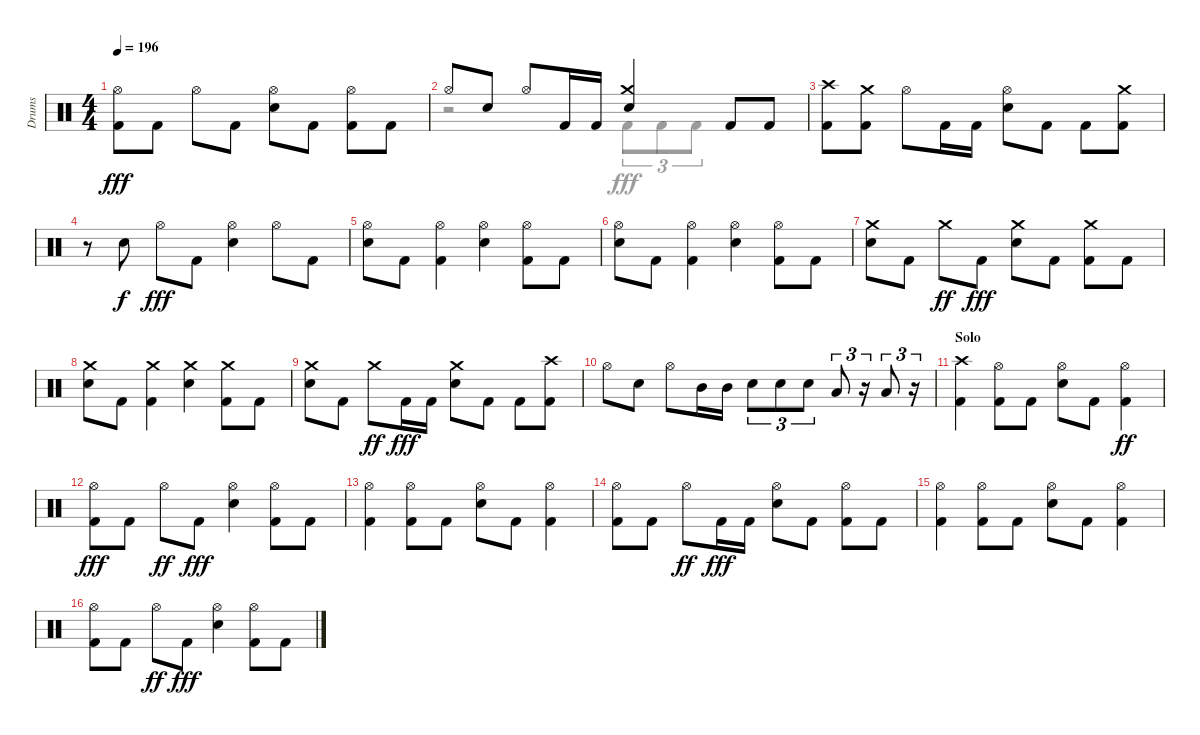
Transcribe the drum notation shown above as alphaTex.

\track ("Drums" "Drums") {instrument percussion}
\staff {score}
\articulation defaults
\voice
\ts (4 4)
\tempo 196
\clef neutral
\ks aminor
("Hi-Hat (open)" "Kick (hit) 2").8{dy fff} "Kick (hit) 2".8 "Hi-Hat (open)".8 "Kick (hit) 2".8 ("Snare (hit) 2" "Hi-Hat (open)").8 "Kick (hit) 2".8 ("Kick (hit) 2" "Hi-Hat (open)").8 "Kick (hit) 2".8 |
"Hi-Hat (open)".8 "Snare (hit) 2".8 "Hi-Hat (open)".8 "Kick (hit) 2".16 "Kick (hit) 2".16 ("Crash medium (hit)" "Snare (hit) 2").4 "Kick (hit) 2".8 "Kick (hit) 2".8 |
("Kick (hit) 2" "Crash high (hit)").8 ("Kick (hit) 2" "Crash medium (hit)").8 "Hi-Hat (open)".8 "Kick (hit) 2".16 "Kick (hit) 2".16 ("Snare (hit) 2" "Hi-Hat (open)").8 "Kick (hit) 2".8 "Kick (hit) 2".8 ("Kick (hit) 2" "Crash medium (hit)").8 |
r.8 "Snare (hit) 2".8{dy f} "Hi-Hat (open)".8{dy fff} "Kick (hit) 2".8 ("Snare (hit) 2" "Hi-Hat (open)").4 "Hi-Hat (open)".8 "Kick (hit) 2".8 |
("Hi-Hat (open)" "Snare (hit) 2").8 "Kick (hit) 2".8 ("Hi-Hat (open)" "Kick (hit) 2").4 ("Hi-Hat (open)" "Snare (hit) 2").4 ("Hi-Hat (open)" "Kick (hit) 2").8 "Kick (hit) 2".8 |
("Hi-Hat (open)" "Snare (hit) 2").8 "Kick (hit) 2".8 ("Kick (hit) 2" "Hi-Hat (open)").4 ("Hi-Hat (open)" "Snare (hit) 2").4 ("Kick (hit) 2" "Hi-Hat (open)").8 "Kick (hit) 2".8 |
("Crash medium (hit)" "Snare (hit) 2").8 "Kick (hit) 2".8 "Crash medium (hit)".8{dy ff} "Kick (hit) 2".8{dy fff} ("Snare (hit) 2" "Crash medium (hit)").8 "Kick (hit) 2".8 ("Crash medium (hit)" "Kick (hit) 2").8 "Kick (hit) 2".8 |
("Snare (hit) 2" "Crash medium (hit)").8 "Kick (hit) 2".8 ("Crash medium (hit)" "Kick (hit) 2").4 ("Crash medium (hit)" "Snare (hit) 2").4 ("Kick (hit) 2" "Crash medium (hit)").8 "Kick (hit) 2".8 |
("Crash medium (hit)" "Snare (hit) 2").8 "Kick (hit) 2".8 "Crash medium (hit)".8{dy ff} "Kick (hit) 2".16{dy fff} "Kick (hit) 2".16 ("Crash medium (hit)" "Snare (hit) 2").8 "Kick (hit) 2".8 "Kick (hit) 2".8 ("Kick (hit) 2" "Crash high (hit)").8 |
"Hi-Hat (open)".8 "Snare (hit) 2".8 "Hi-Hat (open)".8 "Mid Tom (hit)".16 "Mid Tom (hit)".16 "Snare (hit) 2".8{tu (3 2)} "Snare (hit) 2".8{tu (3 2)} "Snare (hit) 2".8{tu (3 2)} "Low Tom (hit)".8{tu (3 2)} r.16{tu (3 2)} "Low Tom (hit)".8{tu (3 2)} r.16{tu (3 2)} |
\section ("" "Solo")
("Crash high (hit)" "Kick (hit) 2").4 ("Kick (hit) 2" "Hi-Hat (open)").8 "Kick (hit) 2".8 ("Snare (hit) 2" "Hi-Hat (open)").8 "Kick (hit) 2".8 ("Hi-Hat (open)" "Kick (hit) 2").4{dy ff} |
("Kick (hit) 2" "Hi-Hat (open)").8{dy fff} "Kick (hit) 2".8 "Hi-Hat (open)".8{dy ff} "Kick (hit) 2".8{dy fff} ("Snare (hit) 2" "Hi-Hat (open)").4 ("Hi-Hat (open)" "Kick (hit) 2").8 "Kick (hit) 2".8 |
("Kick (hit) 2" "Hi-Hat (open)").4 ("Hi-Hat (open)" "Kick (hit) 2").8 "Kick (hit) 2".8 ("Snare (hit) 2" "Hi-Hat (open)").8 "Kick (hit) 2".8 ("Kick (hit) 2" "Hi-Hat (open)").4 |
("Hi-Hat (open)" "Kick (hit) 2").8 "Kick (hit) 2".8 "Hi-Hat (open)".8{dy ff} "Kick (hit) 2".16{dy fff} "Kick (hit) 2".16 ("Snare (hit) 2" "Hi-Hat (open)").8 "Kick (hit) 2".8 ("Kick (hit) 2" "Hi-Hat (open)").8 "Kick (hit) 2".8 |
("Kick (hit) 2" "Hi-Hat (open)").4 ("Kick (hit) 2" "Hi-Hat (open)").8 "Kick (hit) 2".8 ("Hi-Hat (open)" "Snare (hit) 2").8 "Kick (hit) 2".8 ("Kick (hit) 2" "Hi-Hat (open)").4 |
("Kick (hit) 2" "Hi-Hat (open)").8 "Kick (hit) 2".8 "Hi-Hat (open)".8{dy ff} "Kick (hit) 2".8{dy fff} ("Hi-Hat (open)" "Snare (hit) 2").4 ("Hi-Hat (open)" "Kick (hit) 2").8 "Kick (hit) 2".8
\voice
\clef neutral
\ottava regular
\simile none
\ks aminor
|
r.2 "Kick (hit) 2".8{tu (3 2)} "Kick (hit) 2".8{tu (3 2)} "Kick (hit) 2".8{tu (3 2)} |
|
|
|
|
|
|
|
|
|
|
|
|
|
